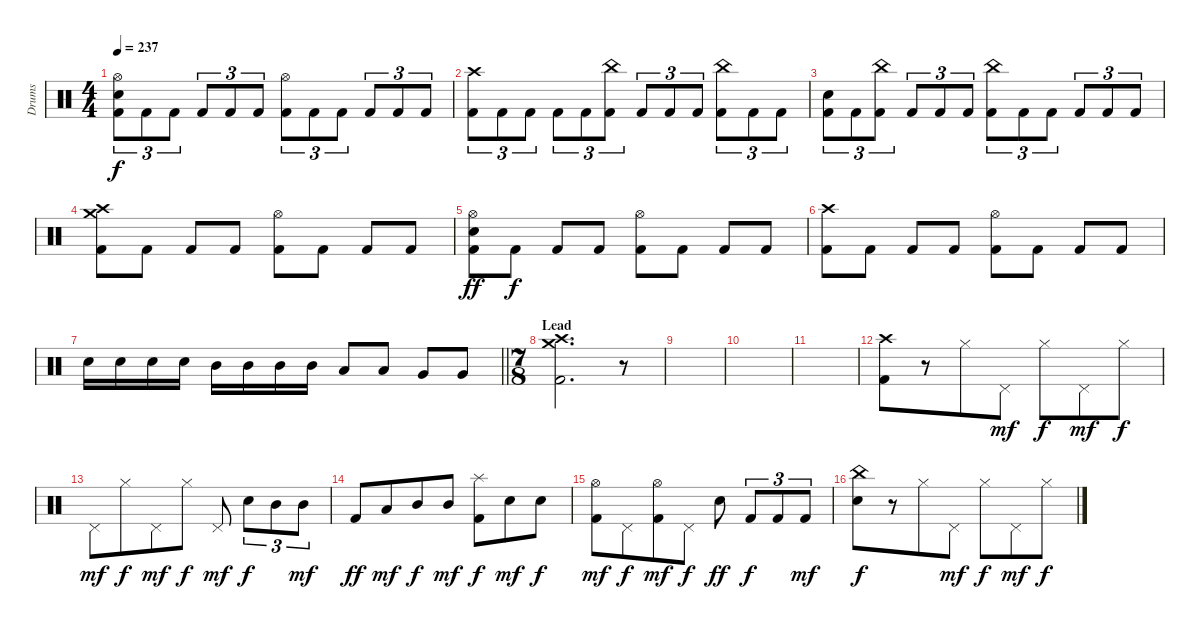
\track ("Drums" "Drums") {instrument percussion}
\staff {score}
\articulation defaults
\ts (4 4)
\tempo 237
\clef neutral
\ks c
("Hi-Hat (open)" "Electric Snare (hit)" "Kick (hit) 2").8{tu (3 2) dy f} "Kick (hit) 2".8{tu (3 2)} "Kick (hit) 2".8{tu (3 2)} "Kick (hit) 2".8{tu (3 2)} "Kick (hit) 2".8{tu (3 2)} "Kick (hit) 2".8{tu (3 2)} ("Hi-Hat (open)" "Kick (hit) 2").8{tu (3 2)} "Kick (hit) 2".8{tu (3 2)} "Kick (hit) 2".8{tu (3 2)} "Kick (hit) 2".8{tu (3 2)} "Kick (hit) 2".8{tu (3 2)} "Kick (hit) 2".8{tu (3 2)} |
("Crash high (hit)" "Kick (hit) 2").8{tu (3 2)} "Kick (hit) 2".8{tu (3 2)} "Kick (hit) 2".8{tu (3 2)} "Kick (hit) 2".8{tu (3 2)} "Kick (hit) 2".8{tu (3 2)} ("China (hit)" "Kick (hit) 2").8{tu (3 2)} "Kick (hit) 2".8{tu (3 2)} "Kick (hit) 2".8{tu (3 2)} "Kick (hit) 2".8{tu (3 2)} ("China (hit)" "Kick (hit) 2").8{tu (3 2)} "Kick (hit) 2".8{tu (3 2)} "Kick (hit) 2".8{tu (3 2)} |
("Electric Snare (hit)" "Kick (hit) 2").8{tu (3 2)} "Kick (hit) 2".8{tu (3 2)} ("China (hit)" "Kick (hit) 2").8{tu (3 2)} "Kick (hit) 2".8{tu (3 2)} "Kick (hit) 2".8{tu (3 2)} "Kick (hit) 2".8{tu (3 2)} ("China (hit)" "Kick (hit) 2").8{tu (3 2)} "Kick (hit) 2".8{tu (3 2)} "Kick (hit) 2".8{tu (3 2)} "Kick (hit) 2".8{tu (3 2)} "Kick (hit) 2".8{tu (3 2)} "Kick (hit) 2".8{tu (3 2)} |
("Crash high (hit)" "Crash medium (hit)" "Kick (hit) 2").8 "Kick (hit) 2".8 "Kick (hit) 2".8 "Kick (hit) 2".8 ("Hi-Hat (open)" "Kick (hit) 2").8 "Kick (hit) 2".8 "Kick (hit) 2".8 "Kick (hit) 2".8 |
("Hi-Hat (open)" "Electric Snare (hit)" "Kick (hit) 2").8{dy ff} "Kick (hit) 2".8{dy f} "Kick (hit) 2".8 "Kick (hit) 2".8 ("Hi-Hat (open)" "Kick (hit) 2").8 "Kick (hit) 2".8 "Kick (hit) 2".8 "Kick (hit) 2".8 |
("Crash high (hit)" "Kick (hit) 2").8 "Kick (hit) 2".8 "Kick (hit) 2".8 "Kick (hit) 2".8 ("Hi-Hat (open)" "Kick (hit) 2").8 "Kick (hit) 2".8 "Kick (hit) 2".8 "Kick (hit) 2".8 |
\barLineRight lightlight "Electric Snare (hit)".16 "Electric Snare (hit)".16 "Electric Snare (hit)".16 "Electric Snare (hit)".16 "Mid Tom (hit)".16 "Mid Tom (hit)".16 "Mid Tom (hit)".16 "Mid Tom (hit)".16 "Low Tom (hit)".8 "Low Tom (hit)".8 "Very Low Tom (hit)".8 "Very Low Tom (hit)".8
|
\ts (7 8)
\section ("" "Lead")
("Crash high (hit)" "Crash medium (hit)" "Kick (hit) 2").2{d} r.8 |
|
|
|
("Crash high (hit)" "Kick (hit) 2").8 r.8 "Hi-Hat (closed)".8 "Pedal Hi-Hat (hit)".8{dy mf} "Hi-Hat (closed)".8{dy f} "Pedal Hi-Hat (hit)".8{dy mf} "Hi-Hat (closed)".8{dy f} |
"Pedal Hi-Hat (hit)".8{dy mf} "Hi-Hat (closed)".8{dy f} "Pedal Hi-Hat (hit)".8{dy mf} "Hi-Hat (closed)".8{dy f} "Pedal Hi-Hat (hit)".8{dy mf} "Electric Snare (hit)".8{tu (3 2) dy f} "Mid Tom (hit)".8{tu (3 2)} "Mid Tom (hit)".8{tu (3 2) dy mf} |
"Kick (hit) 2".8{dy ff} "Low Tom (hit)".8{dy mf} "Mid Tom (hit)".8{dy f} "Mid Tom (hit)".8{dy mf} ("Splash (hit)" "Kick (hit) 2").8{dy f} "Electric Snare (hit)".8{dy mf} "Electric Snare (hit)".8{dy f} |
("Hi-Hat (open)" "Kick (hit) 2").8{dy mf} "Pedal Hi-Hat (hit)".8{dy f} ("Hi-Hat (open)" "Kick (hit) 2").8{dy mf} "Pedal Hi-Hat (hit)".8{dy f} "Electric Snare (hit)".8{dy ff} "Kick (hit) 2".8{tu (3 2) dy f} "Kick (hit) 2".8{tu (3 2)} "Kick (hit) 2".8{tu (3 2) dy mf} |
("China (hit)" "Electric Snare (hit)").8{dy f} r.8 "Hi-Hat (closed)".8 "Pedal Hi-Hat (hit)".8{dy mf} "Hi-Hat (closed)".8{dy f} "Pedal Hi-Hat (hit)".8{dy mf} "Hi-Hat (closed)".8{dy f}
